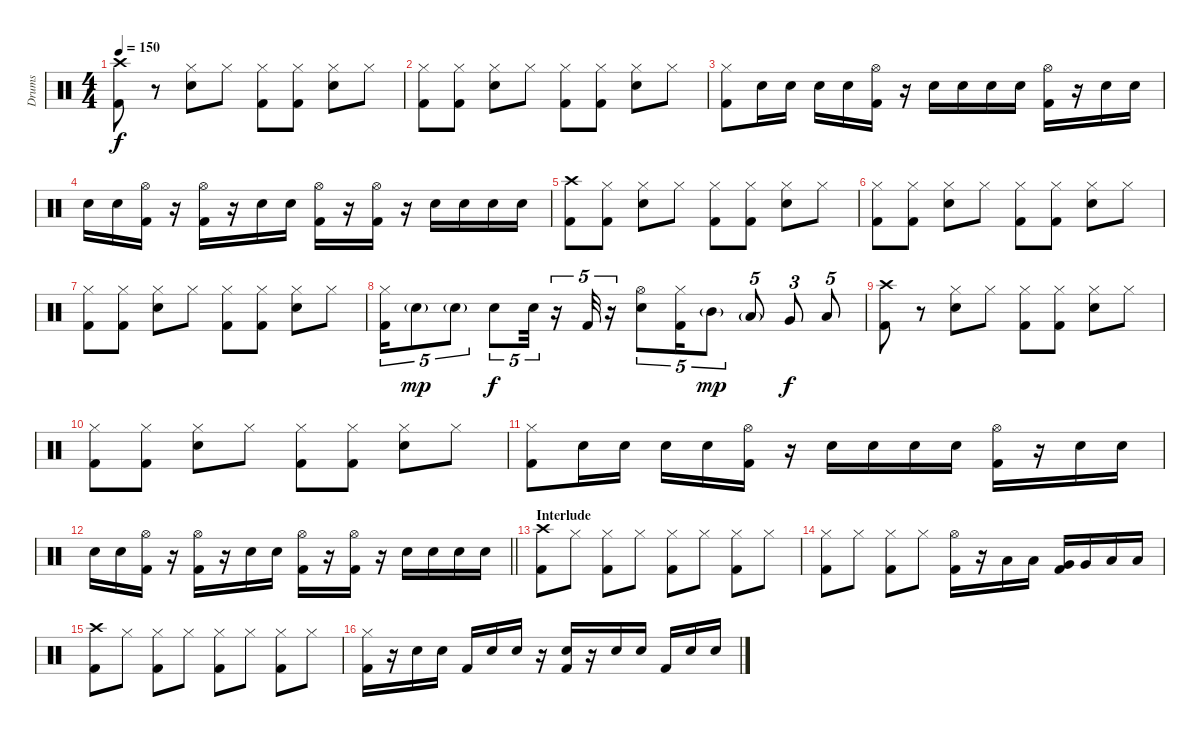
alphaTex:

\track ("Drums" "Drums") {instrument percussion}
\staff {score}
\articulation defaults
\ts (4 4)
\tempo 150
\clef neutral
\ks c
("Crash high (hit)" "Kick (hit) 2").8{dy f} r.8 ("Hi-Hat (closed)" "Snare (hit) 2").8 "Hi-Hat (closed)".8 ("Hi-Hat (closed)" "Kick (hit) 2").8 ("Hi-Hat (closed)" "Kick (hit) 2").8 ("Hi-Hat (closed)" "Snare (hit) 2").8 "Hi-Hat (closed)".8 |
("Hi-Hat (closed)" "Kick (hit) 2").8 ("Hi-Hat (closed)" "Kick (hit) 2").8 ("Hi-Hat (closed)" "Snare (hit) 2").8 "Hi-Hat (closed)".8 ("Hi-Hat (closed)" "Kick (hit) 2").8 ("Hi-Hat (closed)" "Kick (hit) 2").8 ("Hi-Hat (closed)" "Snare (hit) 2").8 "Hi-Hat (closed)".8 |
("Hi-Hat (closed)" "Kick (hit) 2").8 "Snare (hit) 2".16 "Snare (hit) 2".16 "Snare (hit) 2".16 "Snare (hit) 2".16 ("Hi-Hat (open)" "Kick (hit) 2").16 r.16 "Snare (hit) 2".16 "Snare (hit) 2".16 "Snare (hit) 2".16 "Snare (hit) 2".16 ("Hi-Hat (open)" "Kick (hit) 2").16 r.16 "Snare (hit) 2".16 "Snare (hit) 2".16 |
"Snare (hit) 2".16 "Snare (hit) 2".16 ("Hi-Hat (open)" "Kick (hit) 2").16 r.16 ("Hi-Hat (open)" "Kick (hit) 2").16 r.16 "Snare (hit) 2".16 "Snare (hit) 2".16 ("Hi-Hat (open)" "Kick (hit) 2").16 r.16 ("Hi-Hat (open)" "Kick (hit) 2").16 r.16 "Snare (hit) 2".16 "Snare (hit) 2".16 "Snare (hit) 2".16 "Snare (hit) 2".16 |
("Crash high (hit)" "Kick (hit) 2").8 ("Hi-Hat (closed)" "Kick (hit) 2").8 ("Hi-Hat (closed)" "Snare (hit) 2").8 "Hi-Hat (closed)".8 ("Hi-Hat (closed)" "Kick (hit) 2").8 ("Hi-Hat (closed)" "Kick (hit) 2").8 ("Hi-Hat (closed)" "Snare (hit) 2").8 "Hi-Hat (closed)".8 |
("Hi-Hat (closed)" "Kick (hit) 2").8 ("Hi-Hat (closed)" "Kick (hit) 2").8 ("Hi-Hat (closed)" "Snare (hit) 2").8 "Hi-Hat (closed)".8 ("Hi-Hat (closed)" "Kick (hit) 2").8 ("Hi-Hat (closed)" "Kick (hit) 2").8 ("Hi-Hat (closed)" "Snare (hit) 2").8 "Hi-Hat (closed)".8 |
("Hi-Hat (closed)" "Kick (hit) 2").8 ("Hi-Hat (closed)" "Kick (hit) 2").8 ("Hi-Hat (closed)" "Snare (hit) 2").8 "Hi-Hat (closed)".8 ("Hi-Hat (closed)" "Kick (hit) 2").8 ("Hi-Hat (closed)" "Kick (hit) 2").8 ("Hi-Hat (closed)" "Snare (hit) 2").8 "Hi-Hat (closed)".8 |
("Hi-Hat (closed)" "Kick (hit) 2").16{tu (5 4)} "Snare (hit) 2"{g}.8{tu (5 4) dy mp} "Snare (hit) 2"{g}.8{tu (5 4)} "Snare (hit) 2".8{tu (5 4) dy f} "Snare (hit) 2".32{tu (5 4)} r.16{tu (5 4)} "Kick (hit) 2".32{tu (5 4)} r.16{tu (5 4)} ("Hi-Hat (open)" "Snare (hit) 2").8{tu (5 4)} ("Hi-Hat (closed)" "Kick (hit) 2").16{tu (5 4)} "Mid Tom (hit)"{g}.8{tu (5 4) dy mp} "Low Tom (hit)"{g}.8{tu (5 4)} "Very Low Tom (hit)".8{tu (3 2) dy f} "Low Floor Tom (hit)".8{tu (5 4)} |
("Crash high (hit)" "Kick (hit) 2").8 r.8 ("Hi-Hat (closed)" "Snare (hit) 2").8 "Hi-Hat (closed)".8 ("Hi-Hat (closed)" "Kick (hit) 2").8 ("Hi-Hat (closed)" "Kick (hit) 2").8 ("Hi-Hat (closed)" "Snare (hit) 2").8 "Hi-Hat (closed)".8 |
("Hi-Hat (closed)" "Kick (hit) 2").8 ("Hi-Hat (closed)" "Kick (hit) 2").8 ("Hi-Hat (closed)" "Snare (hit) 2").8 "Hi-Hat (closed)".8 ("Hi-Hat (closed)" "Kick (hit) 2").8 ("Hi-Hat (closed)" "Kick (hit) 2").8 ("Hi-Hat (closed)" "Snare (hit) 2").8 "Hi-Hat (closed)".8 |
("Hi-Hat (closed)" "Kick (hit) 2").8 "Snare (hit) 2".16 "Snare (hit) 2".16 "Snare (hit) 2".16 "Snare (hit) 2".16 ("Hi-Hat (open)" "Kick (hit) 2").16 r.16 "Snare (hit) 2".16 "Snare (hit) 2".16 "Snare (hit) 2".16 "Snare (hit) 2".16 ("Hi-Hat (open)" "Kick (hit) 2").16 r.16 "Snare (hit) 2".16 "Snare (hit) 2".16 |
\barLineRight lightlight "Snare (hit) 2".16 "Snare (hit) 2".16
("Hi-Hat (open)" "Kick (hit) 2").16 r.16 ("Hi-Hat (open)" "Kick (hit) 2").16 r.16 "Snare (hit) 2".16 "Snare (hit) 2".16 ("Hi-Hat (open)" "Kick (hit) 2").16 r.16 ("Hi-Hat (open)" "Kick (hit) 2").16 r.16 "Snare (hit) 2".16 "Snare (hit) 2".16 "Snare (hit) 2".16 "Snare (hit) 2".16 |
\section ("" "Interlude")
("Crash high (hit)" "Kick (hit) 2").8 "Hi-Hat (closed)".8 ("Hi-Hat (closed)" "Kick (hit) 2").8 "Hi-Hat (closed)".8 ("Hi-Hat (closed)" "Kick (hit) 2").8 "Hi-Hat (closed)".8 ("Hi-Hat (closed)" "Kick (hit) 2").8 "Hi-Hat (closed)".8 |
("Hi-Hat (closed)" "Kick (hit) 2").8 "Hi-Hat (closed)".8 ("Hi-Hat (closed)" "Kick (hit) 2").8 "Hi-Hat (closed)".8 ("Hi-Hat (open)" "Kick (hit) 2").16 r.16 "Low Tom (hit)".16 "Low Tom (hit)".16 ("Very Low Tom (hit)" "Kick (hit) 2").16 "Very Low Tom (hit)".16 "Low Floor Tom (hit)".16 "Low Floor Tom (hit)".16 |
("Crash high (hit)" "Kick (hit) 2").8 "Hi-Hat (closed)".8 ("Hi-Hat (closed)" "Kick (hit) 2").8 "Hi-Hat (closed)".8 ("Hi-Hat (closed)" "Kick (hit) 2").8 "Hi-Hat (closed)".8 ("Hi-Hat (closed)" "Kick (hit) 2").8 "Hi-Hat (closed)".8 |
("Hi-Hat (closed)" "Kick (hit) 2").16 r.16 "Snare (hit) 2".16 "Snare (hit) 2".16 "Kick (hit) 2".16 "Snare (hit) 2".16 "Snare (hit) 2".16 r.16 ("Kick (hit) 2" "Snare (hit) 2").16 r.16 "Snare (hit) 2".16 "Snare (hit) 2".16 "Kick (hit) 2".16 "Snare (hit) 2".16 "Snare (hit) 2".16
